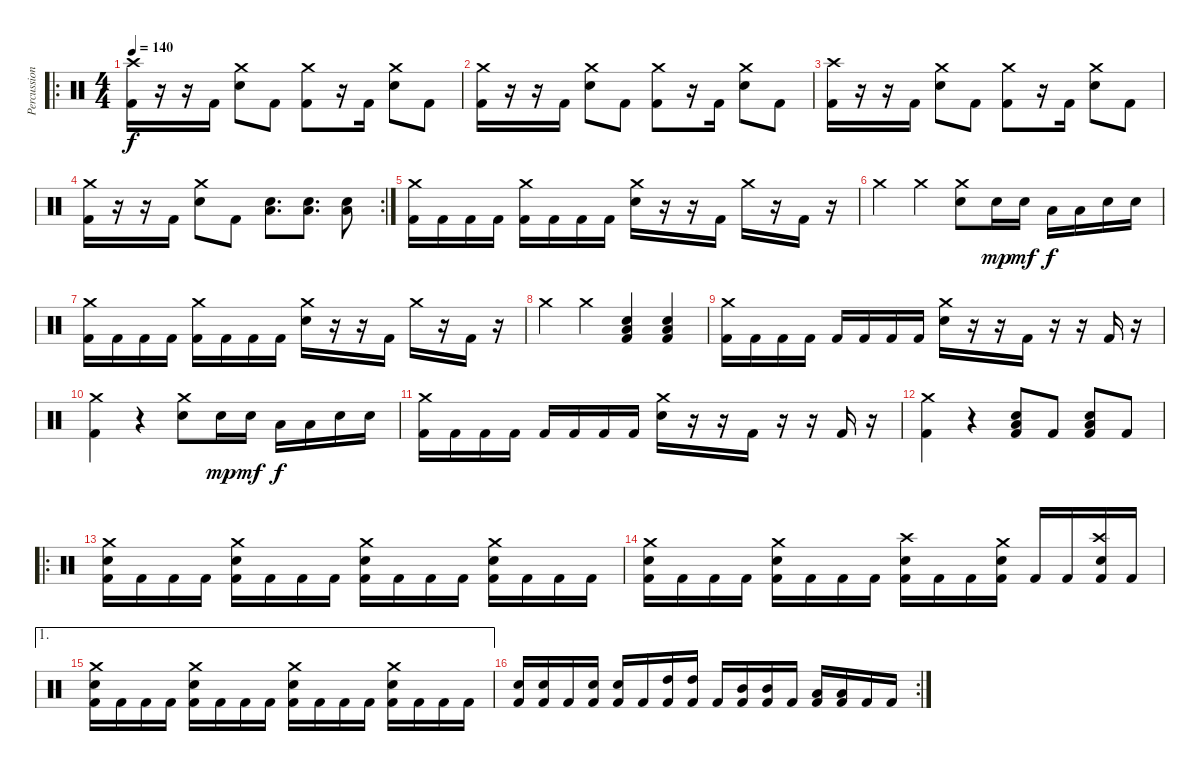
\track ("Percussions" "Percussion") {instrument percussion}
\staff {score}
\articulation defaults
\ro
\ts (4 4)
\tempo 140
\clef neutral
\ks c
("Kick (hit) 2" "Crash high (hit)").16{dy f} r.16 r.16 "Kick (hit) 2".16 ("Electric Snare (hit)" "Crash medium (hit)").8 "Kick (hit) 2".8 ("Kick (hit) 2" "Crash medium (hit)").8 r.16 "Kick (hit) 2".16 ("Electric Snare (hit)" "Crash medium (hit)").8 "Kick (hit) 2".8 |
("Kick (hit) 2" "Crash medium (hit)").16 r.16 r.16 "Kick (hit) 2".16 ("Electric Snare (hit)" "Crash medium (hit)").8 "Kick (hit) 2".8 ("Kick (hit) 2" "Crash medium (hit)").8 r.16 "Kick (hit) 2".16 ("Electric Snare (hit)" "Crash medium (hit)").8 "Kick (hit) 2".8 |
("Kick (hit) 2" "Crash high (hit)").16 r.16 r.16 "Kick (hit) 2".16 ("Electric Snare (hit)" "Crash medium (hit)").8 "Kick (hit) 2".8 ("Kick (hit) 2" "Crash medium (hit)").8 r.16 "Kick (hit) 2".16 ("Electric Snare (hit)" "Crash medium (hit)").8 "Kick (hit) 2".8 |
\rc 2
("Kick (hit) 2" "Crash medium (hit)").16 r.16 r.16 "Kick (hit) 2".16 ("Electric Snare (hit)" "Crash medium (hit)").8 "Kick (hit) 2".8 ("Electric Snare (hit)" "Low Tom (hit)").8{d} ("Electric Snare (hit)" "Low Tom (hit)").8{d} ("Electric Snare (hit)" "Low Tom (hit)").8 |
("Kick (hit) 2" "Crash medium (hit)").16 "Kick (hit) 2".16 "Kick (hit) 2".16 "Kick (hit) 2".16 ("Kick (hit) 2" "Crash medium (hit)").16 "Kick (hit) 2".16 "Kick (hit) 2".16 "Kick (hit) 2".16 ("Electric Snare (hit)" "Crash medium (hit)").16 r.16 r.16 "Kick (hit) 2".16 "Crash medium (hit)".16 r.16 "Kick (hit) 2".16 r.16 |
"Crash medium (hit)".4 "Crash medium (hit)".4 ("Electric Snare (hit)" "Crash medium (hit)").8 "Electric Snare (hit)".16{dy mp} "Electric Snare (hit)".16{dy mf} "Low Tom (hit)".16{dy f} "Low Tom (hit)".16 "Electric Snare (hit)".16 "Electric Snare (hit)".16 |
("Kick (hit) 2" "Crash medium (hit)").16 "Kick (hit) 2".16 "Kick (hit) 2".16 "Kick (hit) 2".16 ("Kick (hit) 2" "Crash medium (hit)").16 "Kick (hit) 2".16 "Kick (hit) 2".16 "Kick (hit) 2".16 ("Electric Snare (hit)" "Crash medium (hit)").16 r.16 r.16 "Kick (hit) 2".16 "Crash medium (hit)".16 r.16 "Kick (hit) 2".16 r.16 |
"Crash medium (hit)".4 "Crash medium (hit)".4 ("Kick (hit) 2" "Electric Snare (hit)" "Low Tom (hit)").4 ("Kick (hit) 2" "Electric Snare (hit)" "Low Tom (hit)").4 |
("Kick (hit) 2" "Crash medium (hit)").16 "Kick (hit) 2".16 "Kick (hit) 2".16 "Kick (hit) 2".16 "Kick (hit) 2".16 "Kick (hit) 2".16 "Kick (hit) 2".16 "Kick (hit) 2".16 ("Electric Snare (hit)" "Crash medium (hit)").16 r.16 r.16 "Kick (hit) 2".16 r.16 r.16 "Kick (hit) 2".16 r.16 |
("Kick (hit) 2" "Crash medium (hit)").4 r.4 ("Electric Snare (hit)" "Crash medium (hit)").8 "Electric Snare (hit)".16{dy mp} "Electric Snare (hit)".16{dy mf} "Low Tom (hit)".16{dy f} "Low Tom (hit)".16 "Electric Snare (hit)".16 "Electric Snare (hit)".16 |
("Kick (hit) 2" "Crash medium (hit)").16 "Kick (hit) 2".16 "Kick (hit) 2".16 "Kick (hit) 2".16 "Kick (hit) 2".16 "Kick (hit) 2".16 "Kick (hit) 2".16 "Kick (hit) 2".16 ("Electric Snare (hit)" "Crash medium (hit)").16 r.16 r.16 "Kick (hit) 2".16 r.16 r.16 "Kick (hit) 2".16 r.16 |
("Kick (hit) 2" "Crash medium (hit)").4 r.4 ("Kick (hit) 2" "Electric Snare (hit)" "Low Tom (hit)").8 "Kick (hit) 2".8 ("Kick (hit) 2" "Electric Snare (hit)" "Low Tom (hit)").8 "Kick (hit) 2".8 |
\ro
("Kick (hit) 2" "Electric Snare (hit)" "Crash medium (hit)").16 "Kick (hit) 2".16 "Kick (hit) 2".16 "Kick (hit) 2".16 ("Kick (hit) 2" "Electric Snare (hit)" "Crash medium (hit)").16 "Kick (hit) 2".16 "Kick (hit) 2".16 "Kick (hit) 2".16 ("Kick (hit) 2" "Electric Snare (hit)" "Crash medium (hit)").16 "Kick (hit) 2".16 "Kick (hit) 2".16 "Kick (hit) 2".16 ("Kick (hit) 2" "Electric Snare (hit)" "Crash medium (hit)").16 "Kick (hit) 2".16 "Kick (hit) 2".16 "Kick (hit) 2".16 |
("Kick (hit) 2" "Electric Snare (hit)" "Crash medium (hit)").16 "Kick (hit) 2".16 "Kick (hit) 2".16 "Kick (hit) 2".16 ("Kick (hit) 2" "Electric Snare (hit)" "Crash medium (hit)").16 "Kick (hit) 2".16 "Kick (hit) 2".16 "Kick (hit) 2".16 ("Kick (hit) 2" "Electric Snare (hit)" "Crash high (hit)").16 "Kick (hit) 2".16 "Kick (hit) 2".16 ("Kick (hit) 2" "Electric Snare (hit)" "Crash medium (hit)").16 "Kick (hit) 2".16 "Kick (hit) 2".16 ("Kick (hit) 2" "Electric Snare (hit)" "Crash high (hit)").16 "Kick (hit) 2".16 |
\ae 1
("Kick (hit) 2" "Electric Snare (hit)" "Crash medium (hit)").16 "Kick (hit) 2".16 "Kick (hit) 2".16 "Kick (hit) 2".16 ("Kick (hit) 2" "Electric Snare (hit)" "Crash medium (hit)").16 "Kick (hit) 2".16 "Kick (hit) 2".16 "Kick (hit) 2".16 ("Kick (hit) 2" "Electric Snare (hit)" "Crash medium (hit)").16 "Kick (hit) 2".16 "Kick (hit) 2".16 "Kick (hit) 2".16 ("Kick (hit) 2" "Electric Snare (hit)" "Crash medium (hit)").16 "Kick (hit) 2".16 "Kick (hit) 2".16 "Kick (hit) 2".16 |
\rc 2
("Kick (hit) 2" "Electric Snare (hit)").16 ("Kick (hit) 2" "Electric Snare (hit)").16 "Kick (hit) 2".16 ("Kick (hit) 2" "Electric Snare (hit)").16 ("Kick (hit) 2" "Electric Snare (hit)").16 "Kick (hit) 2".16 ("Kick (hit) 2" "High Tom (hit)").16 ("Kick (hit) 2" "High Tom (hit)").16 "Kick (hit) 2".16 ("Kick (hit) 2" "Mid Tom (hit)").16 ("Kick (hit) 2" "Mid Tom (hit)").16 "Kick (hit) 2".16 ("Kick (hit) 2" "Low Tom (hit)").16 ("Kick (hit) 2" "Low Tom (hit)").16 "Kick (hit) 2".16 "Kick (hit) 2".16
